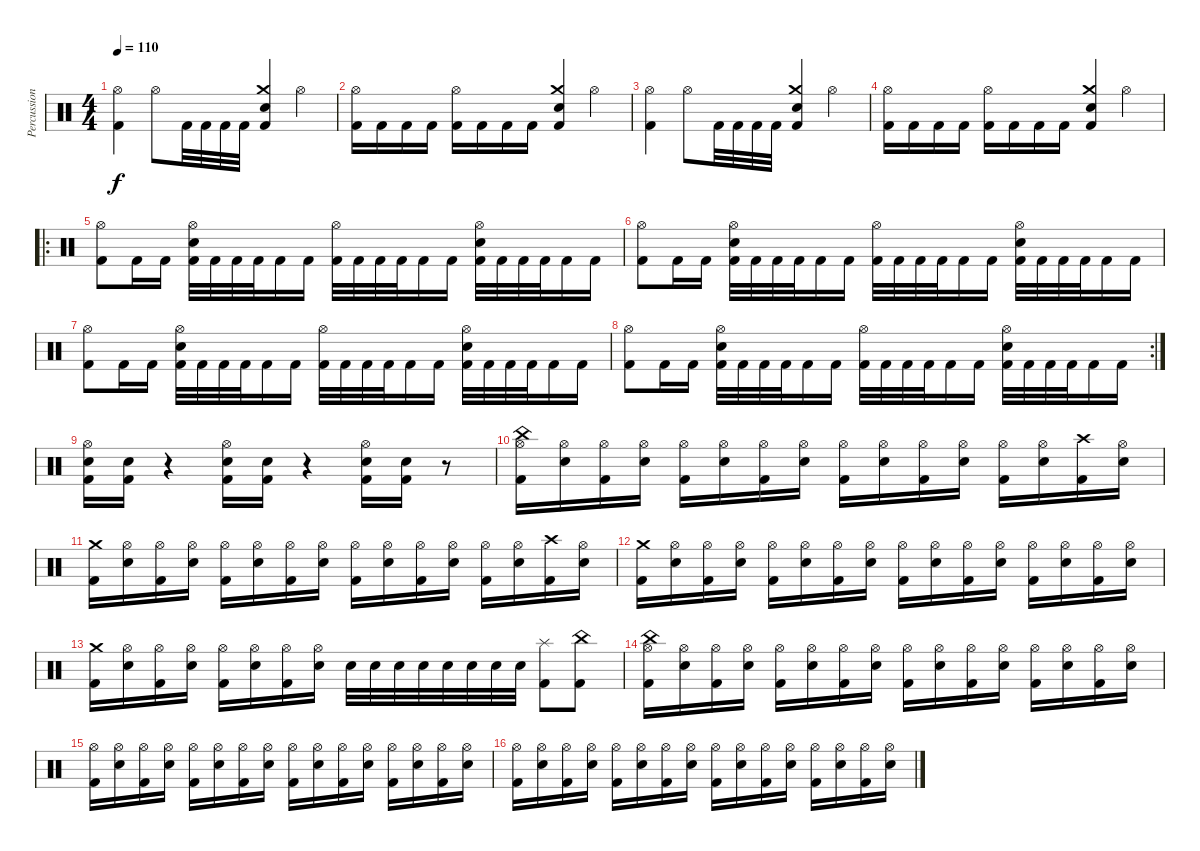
\track ("Percussion" "Percussion") {instrument percussion}
\staff {score}
\articulation defaults
\ts (4 4)
\tempo 110
\clef neutral
\ks c
("Hi-Hat (open)" "Kick (hit) 2").4{dy f} "Hi-Hat (open)".8 "Kick (hit) 2".32 "Kick (hit) 2".32 "Kick (hit) 2".32 "Kick (hit) 2".32 ("Crash medium (hit)" "Kick (hit) 2" "Electric Snare (hit)").4 "Hi-Hat (open)".4 |
("Hi-Hat (open)" "Kick (hit) 2").16 "Kick (hit) 2".16 "Kick (hit) 2".16 "Kick (hit) 2".16 ("Hi-Hat (open)" "Kick (hit) 2").16 "Kick (hit) 2".16 "Kick (hit) 2".16 "Kick (hit) 2".16 ("Kick (hit) 2" "Crash medium (hit)" "Electric Snare (hit)").4 "Hi-Hat (open)".4 |
("Hi-Hat (open)" "Kick (hit) 2").4 "Hi-Hat (open)".8 "Kick (hit) 2".32 "Kick (hit) 2".32 "Kick (hit) 2".32 "Kick (hit) 2".32 ("Crash medium (hit)" "Kick (hit) 2" "Electric Snare (hit)").4 "Hi-Hat (open)".4 |
("Hi-Hat (open)" "Kick (hit) 2").16 "Kick (hit) 2".16 "Kick (hit) 2".16 "Kick (hit) 2".16 ("Hi-Hat (open)" "Kick (hit) 2").16 "Kick (hit) 2".16 "Kick (hit) 2".16 "Kick (hit) 2".16 ("Kick (hit) 2" "Crash medium (hit)" "Electric Snare (hit)").4 "Hi-Hat (open)".4 |
\ro
("Hi-Hat (open)" "Kick (hit) 2").8 "Kick (hit) 2".16 "Kick (hit) 2".16 ("Hi-Hat (open)" "Electric Snare (hit)" "Kick (hit) 2").32 "Kick (hit) 2".32 "Kick (hit) 2".32 "Kick (hit) 2".32 "Kick (hit) 2".16 "Kick (hit) 2".16 ("Hi-Hat (open)" "Kick (hit) 2").32 "Kick (hit) 2".32 "Kick (hit) 2".32 "Kick (hit) 2".32 "Kick (hit) 2".16 "Kick (hit) 2".16 ("Hi-Hat (open)" "Electric Snare (hit)" "Kick (hit) 2").32 "Kick (hit) 2".32 "Kick (hit) 2".32 "Kick (hit) 2".32 "Kick (hit) 2".16 "Kick (hit) 2".16 |
("Hi-Hat (open)" "Kick (hit) 2").8 "Kick (hit) 2".16 "Kick (hit) 2".16 ("Hi-Hat (open)" "Electric Snare (hit)" "Kick (hit) 2").32 "Kick (hit) 2".32 "Kick (hit) 2".32 "Kick (hit) 2".32 "Kick (hit) 2".16 "Kick (hit) 2".16 ("Hi-Hat (open)" "Kick (hit) 2").32 "Kick (hit) 2".32 "Kick (hit) 2".32 "Kick (hit) 2".32 "Kick (hit) 2".16 "Kick (hit) 2".16 ("Hi-Hat (open)" "Electric Snare (hit)" "Kick (hit) 2").32 "Kick (hit) 2".32 "Kick (hit) 2".32 "Kick (hit) 2".32 "Kick (hit) 2".16 "Kick (hit) 2".16 |
("Hi-Hat (open)" "Kick (hit) 2").8 "Kick (hit) 2".16 "Kick (hit) 2".16 ("Hi-Hat (open)" "Electric Snare (hit)" "Kick (hit) 2").32 "Kick (hit) 2".32 "Kick (hit) 2".32 "Kick (hit) 2".32 "Kick (hit) 2".16 "Kick (hit) 2".16 ("Hi-Hat (open)" "Kick (hit) 2").32 "Kick (hit) 2".32 "Kick (hit) 2".32 "Kick (hit) 2".32 "Kick (hit) 2".16 "Kick (hit) 2".16 ("Hi-Hat (open)" "Electric Snare (hit)" "Kick (hit) 2").32 "Kick (hit) 2".32 "Kick (hit) 2".32 "Kick (hit) 2".32 "Kick (hit) 2".16 "Kick (hit) 2".16 |
\rc 2
("Hi-Hat (open)" "Kick (hit) 2").8 "Kick (hit) 2".16 "Kick (hit) 2".16 ("Hi-Hat (open)" "Electric Snare (hit)" "Kick (hit) 2").32 "Kick (hit) 2".32 "Kick (hit) 2".32 "Kick (hit) 2".32 "Kick (hit) 2".16 "Kick (hit) 2".16 ("Hi-Hat (open)" "Kick (hit) 2").32 "Kick (hit) 2".32 "Kick (hit) 2".32 "Kick (hit) 2".32 "Kick (hit) 2".16 "Kick (hit) 2".16 ("Hi-Hat (open)" "Electric Snare (hit)" "Kick (hit) 2").32 "Kick (hit) 2".32 "Kick (hit) 2".32 "Kick (hit) 2".32 "Kick (hit) 2".16 "Kick (hit) 2".16 |
("Hi-Hat (open)" "Electric Snare (hit)" "Kick (hit) 2").16 ("Electric Snare (hit)" "Kick (hit) 2").16 r.4 ("Hi-Hat (open)" "Electric Snare (hit)" "Kick (hit) 2").16 ("Electric Snare (hit)" "Kick (hit) 2").16 r.4 ("Hi-Hat (open)" "Electric Snare (hit)" "Kick (hit) 2").16 ("Electric Snare (hit)" "Kick (hit) 2").16 r.8 |
("China (hit)" "Hi-Hat (open)" "Kick (hit) 2").16 ("Hi-Hat (open)" "Electric Snare (hit)").16 ("Hi-Hat (open)" "Kick (hit) 2").16 ("Hi-Hat (open)" "Electric Snare (hit)").16 ("Hi-Hat (open)" "Kick (hit) 2").16 ("Hi-Hat (open)" "Electric Snare (hit)").16 ("Hi-Hat (open)" "Kick (hit) 2").16 ("Hi-Hat (open)" "Electric Snare (hit)").16 ("Hi-Hat (open)" "Kick (hit) 2").16 ("Hi-Hat (open)" "Electric Snare (hit)").16 ("Hi-Hat (open)" "Kick (hit) 2").16 ("Hi-Hat (open)" "Electric Snare (hit)").16 ("Hi-Hat (open)" "Kick (hit) 2").16 ("Hi-Hat (open)" "Electric Snare (hit)").16 ("Crash high (hit)" "Kick (hit) 2").16 ("Hi-Hat (open)" "Electric Snare (hit)").16 |
("Crash medium (hit)" "Kick (hit) 2").16 ("Hi-Hat (open)" "Electric Snare (hit)").16 ("Hi-Hat (open)" "Kick (hit) 2").16 ("Hi-Hat (open)" "Electric Snare (hit)").16 ("Hi-Hat (open)" "Kick (hit) 2").16 ("Hi-Hat (open)" "Electric Snare (hit)").16 ("Hi-Hat (open)" "Kick (hit) 2").16 ("Hi-Hat (open)" "Electric Snare (hit)").16 ("Hi-Hat (open)" "Kick (hit) 2").16 ("Hi-Hat (open)" "Electric Snare (hit)").16 ("Hi-Hat (open)" "Kick (hit) 2").16 ("Hi-Hat (open)" "Electric Snare (hit)").16 ("Hi-Hat (open)" "Kick (hit) 2").16 ("Hi-Hat (open)" "Electric Snare (hit)").16 ("Crash high (hit)" "Kick (hit) 2").16 ("Hi-Hat (open)" "Electric Snare (hit)").16 |
("Crash medium (hit)" "Kick (hit) 2").16 ("Hi-Hat (open)" "Electric Snare (hit)").16 ("Hi-Hat (open)" "Kick (hit) 2").16 ("Hi-Hat (open)" "Electric Snare (hit)").16 ("Hi-Hat (open)" "Kick (hit) 2").16 ("Hi-Hat (open)" "Electric Snare (hit)").16 ("Hi-Hat (open)" "Kick (hit) 2").16 ("Hi-Hat (open)" "Electric Snare (hit)").16 ("Hi-Hat (open)" "Kick (hit) 2").16 ("Hi-Hat (open)" "Electric Snare (hit)").16 ("Hi-Hat (open)" "Kick (hit) 2").16 ("Hi-Hat (open)" "Electric Snare (hit)").16 ("Hi-Hat (open)" "Kick (hit) 2").16 ("Hi-Hat (open)" "Electric Snare (hit)").16 ("Hi-Hat (open)" "Kick (hit) 2").16 ("Hi-Hat (open)" "Electric Snare (hit)").16 |
("Crash medium (hit)" "Kick (hit) 2").16 ("Hi-Hat (open)" "Electric Snare (hit)").16 ("Hi-Hat (open)" "Kick (hit) 2").16 ("Hi-Hat (open)" "Electric Snare (hit)").16 ("Hi-Hat (open)" "Kick (hit) 2").16 ("Hi-Hat (open)" "Electric Snare (hit)").16 ("Hi-Hat (open)" "Kick (hit) 2").16 ("Hi-Hat (open)" "Electric Snare (hit)").16 "Electric Snare (hit)".32 "Electric Snare (hit)".32 "Electric Snare (hit)".32 "Electric Snare (hit)".32 "Electric Snare (hit)".32 "Electric Snare (hit)".32 "Electric Snare (hit)".32 "Electric Snare (hit)".32 ("Splash (hit)" "Kick (hit) 2").8 ("China (hit)" "Kick (hit) 2").8 |
("China (hit)" "Hi-Hat (open)" "Kick (hit) 2").16 ("Hi-Hat (open)" "Electric Snare (hit)").16 ("Hi-Hat (open)" "Kick (hit) 2").16 ("Hi-Hat (open)" "Electric Snare (hit)").16 ("Hi-Hat (open)" "Kick (hit) 2").16 ("Hi-Hat (open)" "Electric Snare (hit)").16 ("Hi-Hat (open)" "Kick (hit) 2").16 ("Hi-Hat (open)" "Electric Snare (hit)").16 ("Hi-Hat (open)" "Kick (hit) 2").16 ("Hi-Hat (open)" "Electric Snare (hit)").16 ("Hi-Hat (open)" "Kick (hit) 2").16 ("Hi-Hat (open)" "Electric Snare (hit)").16 ("Hi-Hat (open)" "Kick (hit) 2").16 ("Hi-Hat (open)" "Electric Snare (hit)").16 ("Hi-Hat (open)" "Kick (hit) 2").16 ("Hi-Hat (open)" "Electric Snare (hit)").16 |
("Hi-Hat (open)" "Kick (hit) 2").16 ("Hi-Hat (open)" "Electric Snare (hit)").16 ("Hi-Hat (open)" "Kick (hit) 2").16 ("Hi-Hat (open)" "Electric Snare (hit)").16 ("Hi-Hat (open)" "Kick (hit) 2").16 ("Hi-Hat (open)" "Electric Snare (hit)").16 ("Hi-Hat (open)" "Kick (hit) 2").16 ("Hi-Hat (open)" "Electric Snare (hit)").16 ("Hi-Hat (open)" "Kick (hit) 2").16 ("Hi-Hat (open)" "Electric Snare (hit)").16 ("Hi-Hat (open)" "Kick (hit) 2").16 ("Hi-Hat (open)" "Electric Snare (hit)").16 ("Hi-Hat (open)" "Kick (hit) 2").16 ("Hi-Hat (open)" "Electric Snare (hit)").16 ("Hi-Hat (open)" "Kick (hit) 2").16 ("Hi-Hat (open)" "Electric Snare (hit)").16 |
("Hi-Hat (open)" "Kick (hit) 2").16 ("Hi-Hat (open)" "Electric Snare (hit)").16 ("Hi-Hat (open)" "Kick (hit) 2").16 ("Hi-Hat (open)" "Electric Snare (hit)").16 ("Hi-Hat (open)" "Kick (hit) 2").16 ("Hi-Hat (open)" "Electric Snare (hit)").16 ("Hi-Hat (open)" "Kick (hit) 2").16 ("Hi-Hat (open)" "Electric Snare (hit)").16 ("Hi-Hat (open)" "Kick (hit) 2").16 ("Hi-Hat (open)" "Electric Snare (hit)").16 ("Hi-Hat (open)" "Kick (hit) 2").16 ("Hi-Hat (open)" "Electric Snare (hit)").16 ("Hi-Hat (open)" "Kick (hit) 2").16 ("Hi-Hat (open)" "Electric Snare (hit)").16 ("Hi-Hat (open)" "Kick (hit) 2").16 ("Hi-Hat (open)" "Electric Snare (hit)").16
